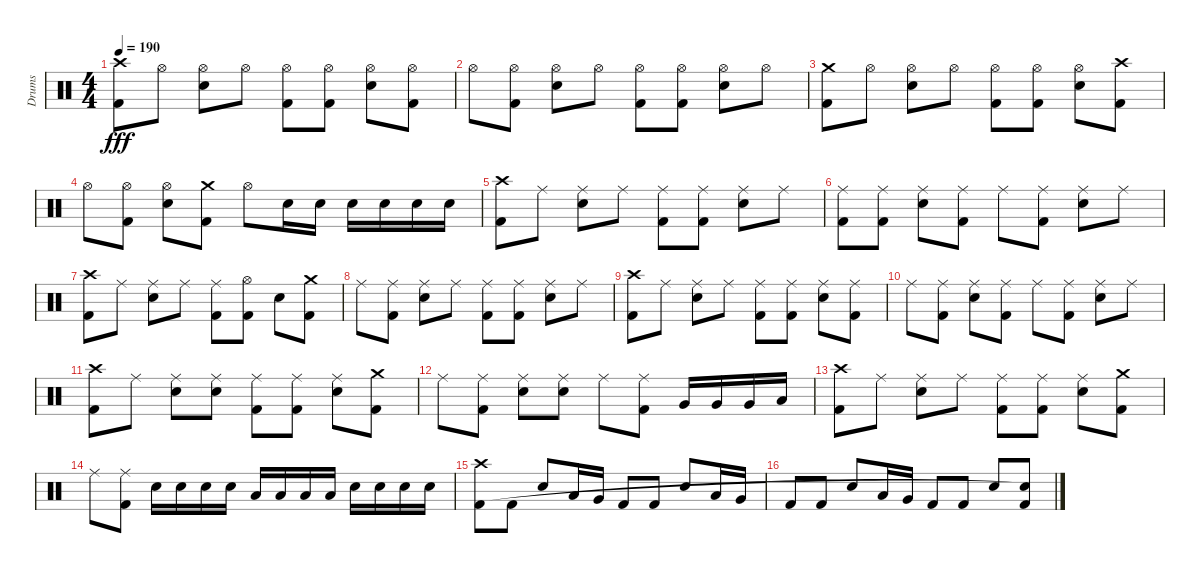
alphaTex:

\track ("Drums" "Drums") {instrument percussion}
\staff {score}
\articulation defaults
\ts (4 4)
\tempo 190
\clef neutral
\ks c
("Crash high (hit)" "Kick (hit) 2").8{dy fff} "Hi-Hat (open)".8 ("Hi-Hat (open)" "Electric Snare (hit)").8 "Hi-Hat (open)".8 ("Hi-Hat (open)" "Kick (hit) 2").8 ("Hi-Hat (open)" "Kick (hit) 2").8 ("Hi-Hat (open)" "Electric Snare (hit)").8 ("Hi-Hat (open)" "Kick (hit) 2").8 |
"Hi-Hat (open)".8 ("Hi-Hat (open)" "Kick (hit) 2").8 ("Hi-Hat (open)" "Electric Snare (hit)").8 "Hi-Hat (open)".8 ("Hi-Hat (open)" "Kick (hit) 2").8 ("Hi-Hat (open)" "Kick (hit) 2").8 ("Hi-Hat (open)" "Electric Snare (hit)").8 "Hi-Hat (open)".8 |
("Crash medium (hit)" "Kick (hit) 2").8 "Hi-Hat (open)".8 ("Hi-Hat (open)" "Electric Snare (hit)").8 "Hi-Hat (open)".8 ("Hi-Hat (open)" "Kick (hit) 2").8 ("Hi-Hat (open)" "Kick (hit) 2").8 ("Hi-Hat (open)" "Electric Snare (hit)").8 ("Crash high (hit)" "Kick (hit) 2").8 |
"Hi-Hat (open)".8 ("Hi-Hat (open)" "Kick (hit) 2").8 ("Hi-Hat (open)" "Electric Snare (hit)").8 ("Crash medium (hit)" "Kick (hit) 2").8 "Hi-Hat (open)".8 "Electric Snare (hit)".16 "Electric Snare (hit)".16 "Electric Snare (hit)".16 "Electric Snare (hit)".16 "Electric Snare (hit)".16 "Electric Snare (hit)".16 |
("Crash high (hit)" "Kick (hit) 2").8 "Ride (middle)".8 ("Ride (middle)" "Electric Snare (hit)").8 "Ride (middle)".8 ("Ride (middle)" "Kick (hit) 2").8 ("Ride (middle)" "Kick (hit) 2").8 ("Ride (middle)" "Electric Snare (hit)").8 "Ride (middle)".8 |
("Ride (middle)" "Kick (hit) 2").8 ("Ride (middle)" "Kick (hit) 2").8 ("Ride (middle)" "Electric Snare (hit)").8 ("Ride (middle)" "Kick (hit) 2").8 "Ride (middle)".8 ("Ride (middle)" "Kick (hit) 2").8 ("Ride (middle)" "Electric Snare (hit)").8 "Ride (middle)".8 |
("Crash high (hit)" "Kick (hit) 2").8 "Ride (middle)".8 ("Ride (middle)" "Electric Snare (hit)").8 "Ride (middle)".8 ("Ride (middle)" "Kick (hit) 2").8 ("Hi-Hat (open)" "Kick (hit) 2").8 "Electric Snare (hit)".8 ("Crash medium (hit)" "Kick (hit) 2").8 |
"Ride (middle)".8 ("Ride (middle)" "Kick (hit) 2").8 ("Ride (middle)" "Electric Snare (hit)").8 "Ride (middle)".8 ("Ride (middle)" "Kick (hit) 2").8 ("Ride (middle)" "Kick (hit) 2").8 ("Ride (middle)" "Electric Snare (hit)").8 "Ride (middle)".8 |
("Crash high (hit)" "Kick (hit) 2").8 "Ride (middle)".8 ("Ride (middle)" "Electric Snare (hit)").8 "Ride (middle)".8 ("Ride (middle)" "Kick (hit) 2").8 ("Ride (middle)" "Kick (hit) 2").8 ("Ride (middle)" "Electric Snare (hit)").8 ("Ride (middle)" "Kick (hit) 2").8 |
"Ride (middle)".8 ("Ride (middle)" "Kick (hit) 2").8 ("Ride (middle)" "Electric Snare (hit)").8 ("Ride (middle)" "Kick (hit) 2").8 "Ride (middle)".8 ("Ride (middle)" "Kick (hit) 2").8 ("Ride (middle)" "Electric Snare (hit)").8 "Ride (middle)".8 |
("Crash high (hit)" "Kick (hit) 2").8 "Ride (middle)".8 ("Ride (middle)" "Electric Snare (hit)").8 ("Ride (middle)" "Electric Snare (hit)").8 ("Ride (middle)" "Kick (hit) 2").8 ("Ride (middle)" "Kick (hit) 2").8 ("Ride (middle)" "Electric Snare (hit)").8 ("Crash medium (hit)" "Kick (hit) 2").8 |
"Ride (middle)".8 ("Ride (middle)" "Kick (hit) 2").8 ("Ride (middle)" "Electric Snare (hit)").8 ("Ride (middle)" "Electric Snare (hit)").8 "Ride (middle)".8 ("Ride (middle)" "Kick (hit) 2").8 "Very Low Tom (hit)".16 "Very Low Tom (hit)".16 "Very Low Tom (hit)".16 "Low Floor Tom (hit)".16 |
("Crash high (hit)" "Kick (hit) 2").8 "Ride (middle)".8 ("Ride (middle)" "Electric Snare (hit)").8 "Ride (middle)".8 ("Ride (middle)" "Kick (hit) 2").8 ("Ride (middle)" "Kick (hit) 2").8 ("Ride (middle)" "Electric Snare (hit)").8 ("Crash medium (hit)" "Kick (hit) 2").8 |
"Ride (middle)".8 ("Ride (middle)" "Kick (hit) 2").8 "Electric Snare (hit)".16 "Electric Snare (hit)".16 "Electric Snare (hit)".16 "Electric Snare (hit)".16 "Low Tom (hit)".16 "Low Tom (hit)".16 "Low Tom (hit)".16 "Low Tom (hit)".16 "Electric Snare (hit)".16 "Electric Snare (hit)".16 "Electric Snare (hit)".16 "Electric Snare (hit)".16 |
("Crash high (hit)" "Kick (hit) 2").8 "Kick (hit) 2".8 "Electric Snare (hit)".8 "Low Tom (hit)".16 "Very Low Tom (hit)".16 "Kick (hit) 2".8 "Kick (hit) 2".8 "Electric Snare (hit)".8 "Low Tom (hit)".16 "Very Low Tom (hit)".16 |
"Kick (hit) 2".8 "Kick (hit) 2".8 "Electric Snare (hit)".8 "Low Tom (hit)".16 "Very Low Tom (hit)".16 "Kick (hit) 2".8 "Kick (hit) 2".8 "Electric Snare (hit)".8 ("Kick (hit) 2" "Snare (hit)"{t}).8
